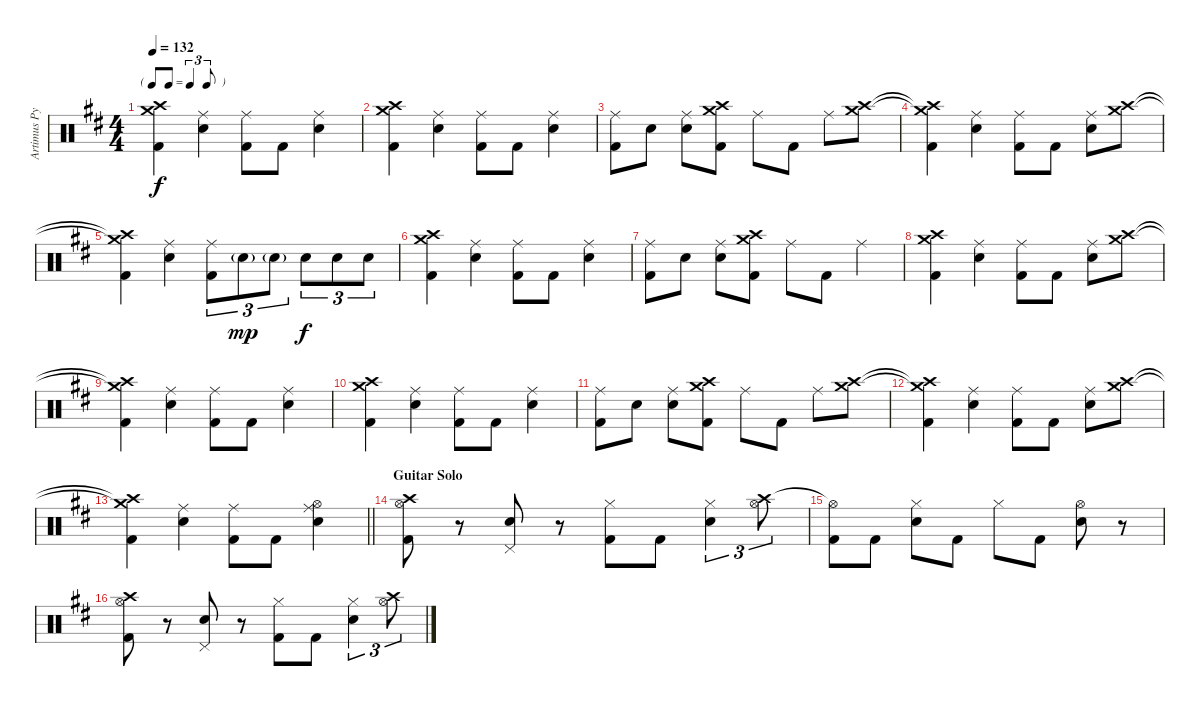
\track ("Artimus Pyle - Drums" "Artimus Py") {solo instrument percussion}
\staff {score}
\articulation defaults
\ts (4 4)
\tf triplet8th
\tempo 132
\clef neutral
\ks d
("Crash medium (hit)"{t} "Crash high (hit)"{t} "Kick (hit) 2").4{dy f} ("Ride (middle)" "Snare (hit) 2").4 ("Ride (middle)" "Kick (hit) 2").8 "Kick (hit) 2".8 ("Ride (middle)" "Snare (hit) 2").4 |
("Crash medium (hit)" "Crash high (hit)" "Kick (hit) 2").4 ("Ride (middle)" "Snare (hit) 2").4 ("Ride (middle)" "Kick (hit) 2").8 "Kick (hit) 2".8 ("Ride (middle)" "Snare (hit) 2").4 |
("Ride (middle)" "Kick (hit) 2").8 "Snare (hit) 2".8 ("Ride (middle)" "Snare (hit) 2").8 ("Crash high (hit)" "Crash medium (hit)" "Kick (hit) 2").8 "Ride (middle)".8 "Kick (hit) 2".8 "Ride (middle)".8 ("Crash medium (hit)" "Crash high (hit)").8 |
("Crash medium (hit)"{t} "Crash high (hit)"{t} "Kick (hit) 2").4 ("Ride (middle)" "Snare (hit) 2").4 ("Ride (middle)" "Kick (hit) 2").8 "Kick (hit) 2".8 ("Ride (middle)" "Snare (hit) 2").8 ("Crash medium (hit)" "Crash high (hit)").8 |
("Crash medium (hit)"{t} "Crash high (hit)"{t} "Kick (hit) 2").4 ("Ride (middle)" "Snare (hit) 2").4 ("Ride (middle)" "Kick (hit) 2").8{tu (3 2)} "Snare (hit) 2"{g}.8{tu (3 2) dy mp} "Snare (hit) 2"{g}.8{tu (3 2)} "Snare (hit) 2".8{tu (3 2) dy f} "Snare (hit) 2".8{tu (3 2)} "Snare (hit) 2".8{tu (3 2)} |
("Crash medium (hit)" "Crash high (hit)" "Kick (hit) 2").4 ("Ride (middle)" "Snare (hit) 2").4 ("Ride (middle)" "Kick (hit) 2").8 "Kick (hit) 2".8 ("Ride (middle)" "Snare (hit) 2").4 |
("Ride (middle)" "Kick (hit) 2").8 "Snare (hit) 2".8 ("Ride (middle)" "Snare (hit) 2").8 ("Crash high (hit)" "Crash medium (hit)" "Kick (hit) 2").8 "Ride (middle)".8 "Kick (hit) 2".8 "Ride (middle)".4 |
("Crash medium (hit)" "Crash high (hit)" "Kick (hit) 2").4 ("Ride (middle)" "Snare (hit) 2").4 ("Ride (middle)" "Kick (hit) 2").8 "Kick (hit) 2".8 ("Ride (middle)" "Snare (hit) 2").8 ("Crash medium (hit)" "Crash high (hit)").8 |
("Crash medium (hit)"{t} "Crash high (hit)"{t} "Kick (hit) 2").4 ("Ride (middle)" "Snare (hit) 2").4 ("Ride (middle)" "Kick (hit) 2").8 "Kick (hit) 2".8 ("Ride (middle)" "Snare (hit) 2").4 |
("Crash medium (hit)" "Crash high (hit)" "Kick (hit) 2").4 ("Ride (middle)" "Snare (hit) 2").4 ("Ride (middle)" "Kick (hit) 2").8 "Kick (hit) 2".8 ("Ride (middle)" "Snare (hit) 2").4 |
("Ride (middle)" "Kick (hit) 2").8 "Snare (hit) 2".8 ("Ride (middle)" "Snare (hit) 2").8 ("Crash high (hit)" "Crash medium (hit)" "Kick (hit) 2").8 "Ride (middle)".8 "Kick (hit) 2".8 "Ride (middle)".8 ("Crash medium (hit)" "Crash high (hit)").8 |
("Crash medium (hit)"{t} "Crash high (hit)"{t} "Kick (hit) 2").4 ("Ride (middle)" "Snare (hit) 2").4 ("Ride (middle)" "Kick (hit) 2").8 "Kick (hit) 2".8 ("Ride (middle)" "Snare (hit) 2").8 ("Crash medium (hit)" "Crash high (hit)").8 |
\barLineRight lightlight
("Crash medium (hit)"{t} "Crash high (hit)"{t} "Kick (hit) 2").4 ("Ride (middle)" "Snare (hit) 2").4 ("Ride (middle)" "Kick (hit) 2").8 "Kick (hit) 2".8 ("Ride (middle)" "Snare (hit) 2" "Hi-Hat (open)").4 |
\section ("" "Guitar Solo")
("Crash high (hit)" "Hi-Hat (open)" "Kick (hit) 2").8 r.8 ("Snare (hit) 2" "Pedal Hi-Hat (hit)").8 r.8 ("Hi-Hat (closed)" "Kick (hit) 2").8 "Kick (hit) 2".8 ("Snare (hit) 2" "Hi-Hat (closed)").4{tu (3 2)} ("Crash high (hit)" "Hi-Hat (open)").8{tu (3 2)} |
("Hi-Hat (open)"{t} "Kick (hit) 2").8 "Kick (hit) 2".8 ("Snare (hit) 2" "Hi-Hat (closed)").8 "Kick (hit) 2".8 "Hi-Hat (closed)".8 "Kick (hit) 2".8 ("Snare (hit) 2" "Hi-Hat (open)").8 r.8 |
("Crash high (hit)" "Hi-Hat (open)" "Kick (hit) 2").8 r.8 ("Snare (hit) 2" "Pedal Hi-Hat (hit)").8 r.8 ("Hi-Hat (closed)" "Kick (hit) 2").8 "Kick (hit) 2".8 ("Snare (hit) 2" "Hi-Hat (closed)").4{tu (3 2)} ("Crash high (hit)" "Hi-Hat (open)").8{tu (3 2)}
